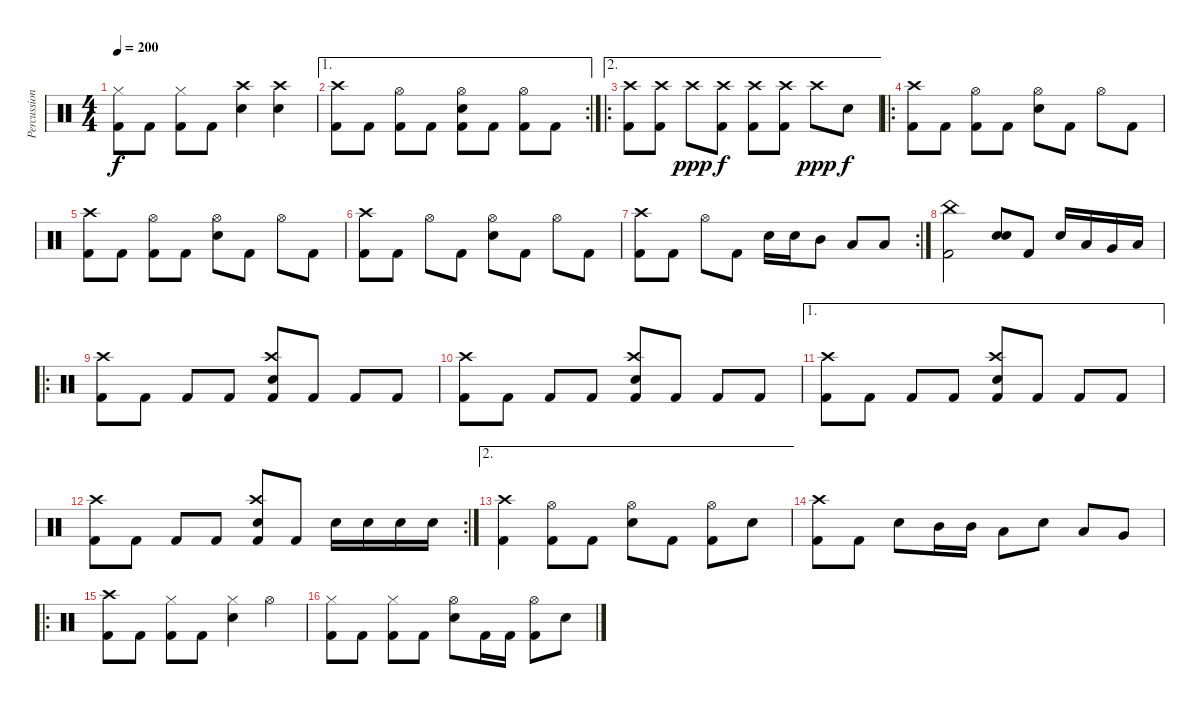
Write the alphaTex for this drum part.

\track ("Percussions" "Percussion") {instrument percussion}
\staff {score}
\articulation defaults
\ts (4 4)
\tempo 200
\clef neutral
\ks c
("Hi-Hat (closed)" "Kick (hit) 2").8{dy f} "Kick (hit) 2".8 ("Hi-Hat (closed)" "Kick (hit) 2").8 "Kick (hit) 2".8 ("Crash high (hit)" "Snare (hit) 2").4 ("Crash high (hit)" "Snare (hit) 2").4 |
\ae 1
\rc 2
("Crash high (hit)" "Kick (hit) 2").8 "Kick (hit) 2".8 ("Hi-Hat (open)" "Kick (hit) 2").8 "Kick (hit) 2".8 ("Hi-Hat (open)" "Snare (hit) 2" "Kick (hit) 2").8 "Kick (hit) 2".8 ("Hi-Hat (open)" "Kick (hit) 2").8 "Kick (hit) 2".8 |
\ae 2
\ro
("Crash high (hit)" "Kick (hit) 2").8 ("Crash high (hit)" "Kick (hit) 2").8 "Crash high (hit)".8{dy ppp} ("Crash high (hit)" "Kick (hit) 2").8{dy f} ("Crash high (hit)" "Kick (hit) 2").8 ("Crash high (hit)" "Kick (hit) 2").8 "Crash high (hit)".8{dy ppp} "Snare (hit) 2".8{dy f} |
\ro
("Crash high (hit)" "Kick (hit) 2").8 "Kick (hit) 2".8 ("Hi-Hat (open)" "Kick (hit) 2").8 "Kick (hit) 2".8 ("Hi-Hat (open)" "Snare (hit) 2").8 "Kick (hit) 2".8 "Hi-Hat (open)".8 "Kick (hit) 2".8 |
("Crash high (hit)" "Kick (hit) 2").8 "Kick (hit) 2".8 ("Hi-Hat (open)" "Kick (hit) 2").8 "Kick (hit) 2".8 ("Hi-Hat (open)" "Snare (hit) 2").8 "Kick (hit) 2".8 "Hi-Hat (open)".8 "Kick (hit) 2".8 |
("Crash high (hit)" "Kick (hit) 2").8 "Kick (hit) 2".8 "Hi-Hat (open)".8 "Kick (hit) 2".8 ("Hi-Hat (open)" "Snare (hit) 2").8 "Kick (hit) 2".8 "Hi-Hat (open)".8 "Kick (hit) 2".8 |
\rc 2
("Crash high (hit)" "Kick (hit) 2").8 "Kick (hit) 2".8 "Hi-Hat (open)".8 "Kick (hit) 2".8 "Snare (hit) 2".16 "Snare (hit) 2".16 "Mid Tom (hit)".8 "Low Tom (hit)".8 "Low Floor Tom (hit)".8 |
("China (hit)" "Kick (hit) 2").2 ("Snare (hit) 2" "Snare (hit) 2").8{bd 240} "Kick (hit) 2".8 "Snare (hit) 2".16 "Low Tom (hit)".16 "Very Low Tom (hit)".16 "Low Floor Tom (hit)".16 |
\ro
("Crash high (hit)" "Kick (hit) 2").8 "Kick (hit) 2".8 "Kick (hit) 2".8 "Kick (hit) 2".8 ("Crash high (hit)" "Snare (hit) 2" "Kick (hit) 2").8 "Kick (hit) 2".8 "Kick (hit) 2".8 "Kick (hit) 2".8 |
("Crash high (hit)" "Kick (hit) 2").8 "Kick (hit) 2".8 "Kick (hit) 2".8 "Kick (hit) 2".8 ("Crash high (hit)" "Snare (hit) 2" "Kick (hit) 2").8 "Kick (hit) 2".8 "Kick (hit) 2".8 "Kick (hit) 2".8 |
\ae 1
("Crash high (hit)" "Kick (hit) 2").8 "Kick (hit) 2".8 "Kick (hit) 2".8 "Kick (hit) 2".8 ("Crash high (hit)" "Snare (hit) 2" "Kick (hit) 2").8 "Kick (hit) 2".8 "Kick (hit) 2".8 "Kick (hit) 2".8 |
\rc 2
("Crash high (hit)" "Kick (hit) 2").8 "Kick (hit) 2".8 "Kick (hit) 2".8 "Kick (hit) 2".8 ("Crash high (hit)" "Snare (hit) 2" "Kick (hit) 2").8 "Kick (hit) 2".8 "Snare (hit) 2".16 "Snare (hit) 2".16 "Snare (hit) 2".16 "Snare (hit) 2".16 |
\ae 2
("Crash high (hit)" "Kick (hit) 2").4 ("Hi-Hat (open)" "Kick (hit) 2").8 "Kick (hit) 2".8 ("Hi-Hat (open)" "Snare (hit) 2").8 "Kick (hit) 2".8 ("Hi-Hat (open)" "Kick (hit) 2").8 "Snare (hit) 2".8 |
("Crash high (hit)" "Kick (hit) 2").8 "Kick (hit) 2".8 "Snare (hit) 2".8 "Mid Tom (hit)".16 "Mid Tom (hit)".16 "Low Tom (hit)".8 "Snare (hit) 2".8 "Low Tom (hit)".8 "Very Low Tom (hit)".8 |
\ro
("Crash high (hit)" "Kick (hit) 2").8 "Kick (hit) 2".8 ("Hi-Hat (closed)" "Kick (hit) 2").8 "Kick (hit) 2".8 ("Hi-Hat (closed)" "Snare (hit) 2").4 "Hi-Hat (open)".4 |
("Hi-Hat (closed)" "Kick (hit) 2").8 "Kick (hit) 2".8 ("Hi-Hat (closed)" "Kick (hit) 2").8 "Kick (hit) 2".8 ("Hi-Hat (open)" "Snare (hit) 2").8 "Kick (hit) 2".16 "Kick (hit) 2".16 ("Hi-Hat (open)" "Kick (hit) 2").8 "Snare (hit) 2".8
